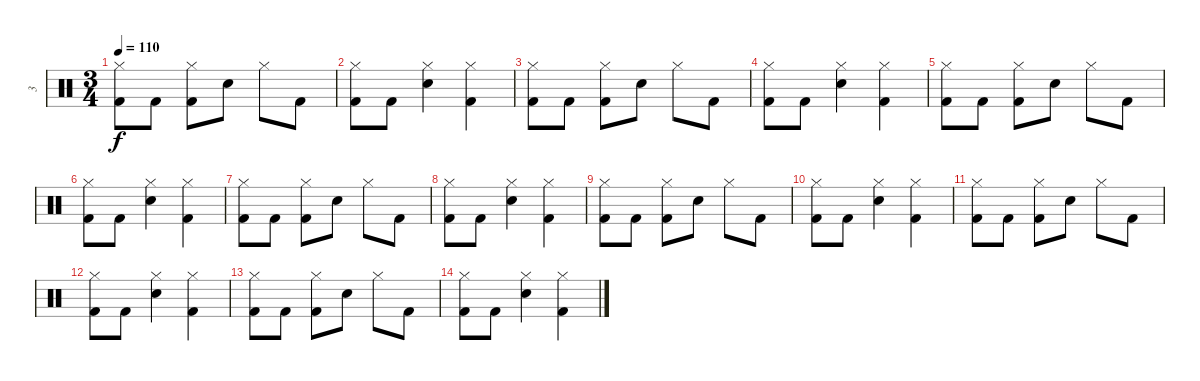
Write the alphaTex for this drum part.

\track ("3" "3") {instrument percussion}
\staff {score}
\articulation defaults
\ts (3 4)
\tempo 110
\clef neutral
\ks c
("Hi-Hat (closed)" "Kick (hit) 2").8{dy f} "Kick (hit) 2".8 ("Hi-Hat (closed)" "Kick (hit) 2").8 "Snare (hit) 2".8 "Hi-Hat (closed)".8 "Kick (hit) 2".8 |
("Hi-Hat (closed)" "Kick (hit) 2").8 "Kick (hit) 2".8 ("Hi-Hat (closed)" "Snare (hit) 2").4 ("Hi-Hat (closed)" "Kick (hit) 2").4 |
("Hi-Hat (closed)" "Kick (hit) 2").8 "Kick (hit) 2".8 ("Hi-Hat (closed)" "Kick (hit) 2").8 "Snare (hit) 2".8 "Hi-Hat (closed)".8 "Kick (hit) 2".8 |
("Hi-Hat (closed)" "Kick (hit) 2").8 "Kick (hit) 2".8 ("Hi-Hat (closed)" "Snare (hit) 2").4 ("Hi-Hat (closed)" "Kick (hit) 2").4 |
("Hi-Hat (closed)" "Kick (hit) 2").8 "Kick (hit) 2".8 ("Hi-Hat (closed)" "Kick (hit) 2").8 "Snare (hit) 2".8 "Hi-Hat (closed)".8 "Kick (hit) 2".8 |
("Hi-Hat (closed)" "Kick (hit) 2").8 "Kick (hit) 2".8 ("Hi-Hat (closed)" "Snare (hit) 2").4 ("Hi-Hat (closed)" "Kick (hit) 2").4 |
("Hi-Hat (closed)" "Kick (hit) 2").8 "Kick (hit) 2".8 ("Hi-Hat (closed)" "Kick (hit) 2").8 "Snare (hit) 2".8 "Hi-Hat (closed)".8 "Kick (hit) 2".8 |
("Hi-Hat (closed)" "Kick (hit) 2").8 "Kick (hit) 2".8 ("Hi-Hat (closed)" "Snare (hit) 2").4 ("Hi-Hat (closed)" "Kick (hit) 2").4 |
("Hi-Hat (closed)" "Kick (hit) 2").8 "Kick (hit) 2".8 ("Hi-Hat (closed)" "Kick (hit) 2").8 "Snare (hit) 2".8 "Hi-Hat (closed)".8 "Kick (hit) 2".8 |
("Hi-Hat (closed)" "Kick (hit) 2").8 "Kick (hit) 2".8 ("Hi-Hat (closed)" "Snare (hit) 2").4 ("Hi-Hat (closed)" "Kick (hit) 2").4 |
("Hi-Hat (closed)" "Kick (hit) 2").8 "Kick (hit) 2".8 ("Hi-Hat (closed)" "Kick (hit) 2").8 "Snare (hit) 2".8 "Hi-Hat (closed)".8 "Kick (hit) 2".8 |
("Hi-Hat (closed)" "Kick (hit) 2").8 "Kick (hit) 2".8 ("Hi-Hat (closed)" "Snare (hit) 2").4 ("Hi-Hat (closed)" "Kick (hit) 2").4 |
("Hi-Hat (closed)" "Kick (hit) 2").8 "Kick (hit) 2".8 ("Hi-Hat (closed)" "Kick (hit) 2").8 "Snare (hit) 2".8 "Hi-Hat (closed)".8 "Kick (hit) 2".8 |
("Hi-Hat (closed)" "Kick (hit) 2").8 "Kick (hit) 2".8 ("Hi-Hat (closed)" "Snare (hit) 2").4 ("Hi-Hat (closed)" "Kick (hit) 2").4
